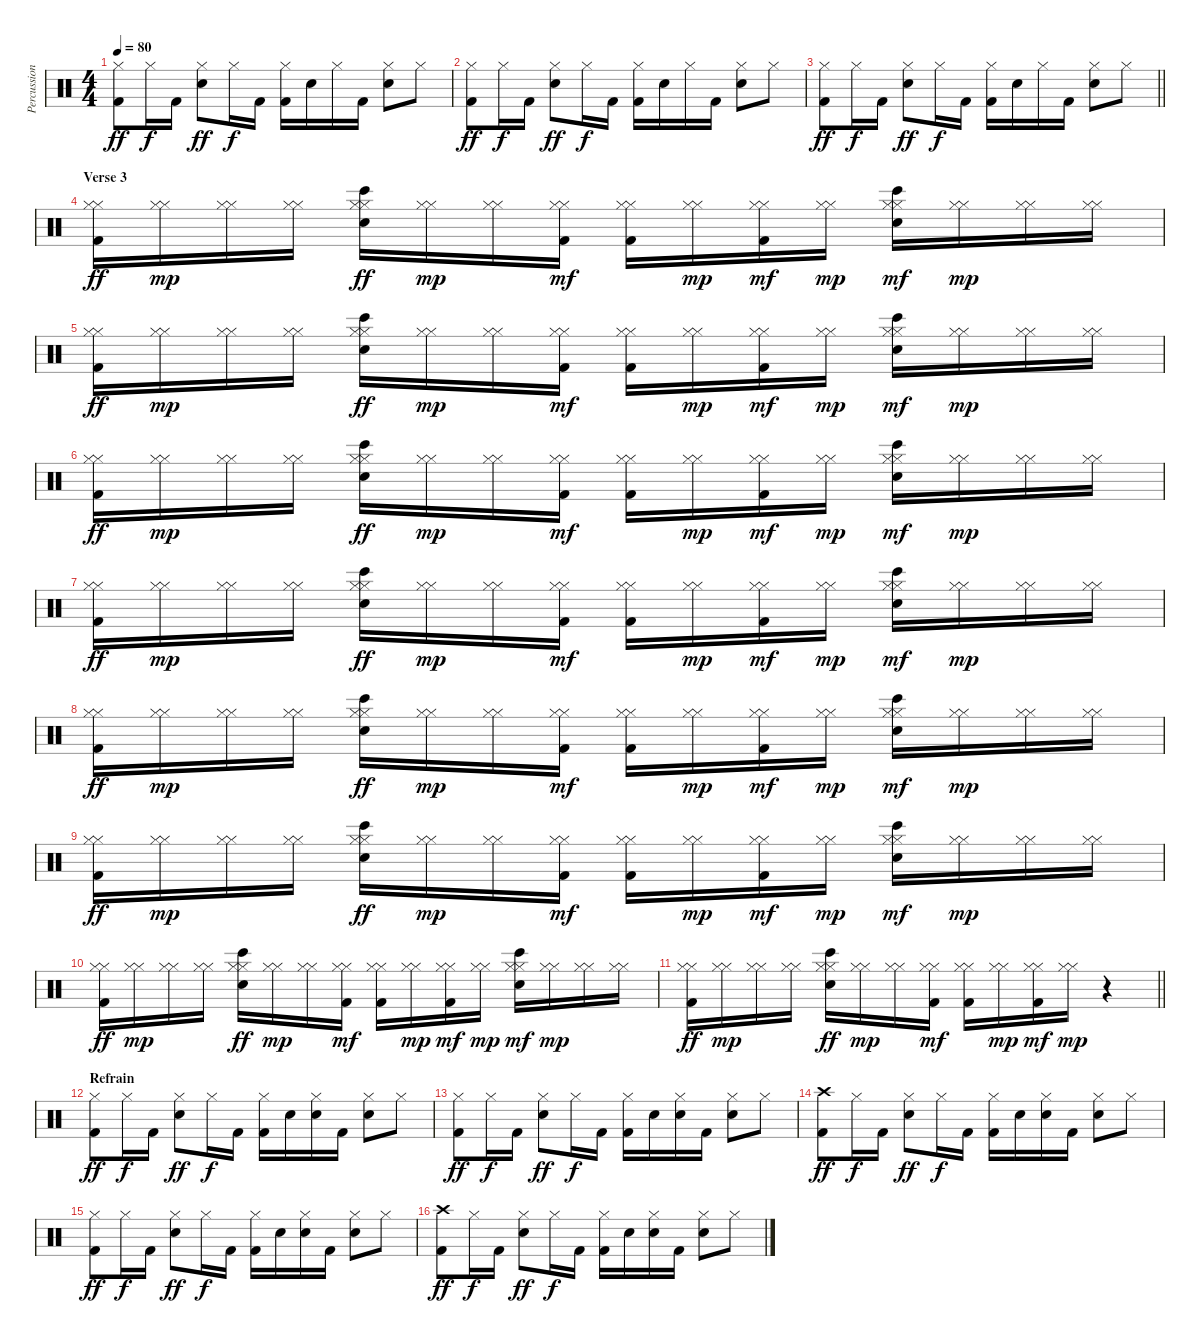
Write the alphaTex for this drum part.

\track ("Percussion (Stieven)" "Percussion") {instrument percussion}
\staff {score}
\articulation defaults
\ts (4 4)
\tempo 80
\clef neutral
\ks c
("Hi-Hat (closed)" "Kick (hit) 2").8{dy ff} "Hi-Hat (closed)".16{dy f} "Kick (hit) 2".16 ("Hi-Hat (closed)" "Snare (hit) 2").8{dy ff} "Hi-Hat (closed)".16{dy f} "Kick (hit) 2".16 ("Hi-Hat (closed)" "Kick (hit) 2").16 "Snare (hit) 2".16 "Hi-Hat (closed)".16 "Kick (hit) 2".16 ("Hi-Hat (closed)" "Snare (hit) 2").8 "Hi-Hat (closed)".8 |
("Hi-Hat (closed)" "Kick (hit) 2").8{dy ff} "Hi-Hat (closed)".16{dy f} "Kick (hit) 2".16 ("Hi-Hat (closed)" "Snare (hit) 2").8{dy ff} "Hi-Hat (closed)".16{dy f} "Kick (hit) 2".16 ("Hi-Hat (closed)" "Kick (hit) 2").16 "Snare (hit) 2".16 "Hi-Hat (closed)".16 "Kick (hit) 2".16 ("Hi-Hat (closed)" "Snare (hit) 2").8 "Hi-Hat (closed)".8 |
\barLineRight lightlight
("Hi-Hat (closed)" "Kick (hit) 2").8{dy ff} "Hi-Hat (closed)".16{dy f} "Kick (hit) 2".16 ("Hi-Hat (closed)" "Snare (hit) 2").8{dy ff} "Hi-Hat (closed)".16{dy f} "Kick (hit) 2".16 ("Hi-Hat (closed)" "Kick (hit) 2").16 "Snare (hit) 2".16 "Hi-Hat (closed)".16 "Kick (hit) 2".16 ("Hi-Hat (closed)" "Snare (hit) 2").8 "Hi-Hat (closed)".8 |
\section ("" "Verse 3")
("Hi-Hat (closed)" "Hi-Hat (closed)" "Kick (hit) 2").16{dy ff} ("Hi-Hat (closed)" "Hi-Hat (closed)").16{dy mp} ("Hi-Hat (closed)" "Hi-Hat (closed)").16 ("Hi-Hat (closed)" "Hi-Hat (closed)").16 ("Hi-Hat (closed)" "Hi-Hat (closed)" "Bongo High (hit)" "Snare (hit) 2").16{dy ff} ("Hi-Hat (closed)" "Hi-Hat (closed)").16{dy mp} ("Hi-Hat (closed)" "Hi-Hat (closed)").16 ("Hi-Hat (closed)" "Hi-Hat (closed)" "Kick (hit) 2").16{dy mf} ("Hi-Hat (closed)" "Hi-Hat (closed)" "Kick (hit) 2").16 ("Hi-Hat (closed)" "Hi-Hat (closed)").16{dy mp} ("Hi-Hat (closed)" "Hi-Hat (closed)" "Kick (hit) 2").16{dy mf} ("Hi-Hat (closed)" "Hi-Hat (closed)").16{dy mp} ("Hi-Hat (closed)" "Hi-Hat (closed)" "Bongo High (hit)" "Snare (hit) 2").16{dy mf} ("Hi-Hat (closed)" "Hi-Hat (closed)").16{dy mp} ("Hi-Hat (closed)" "Hi-Hat (closed)").16 ("Hi-Hat (closed)" "Hi-Hat (closed)").16 |
("Hi-Hat (closed)" "Hi-Hat (closed)" "Kick (hit) 2").16{dy ff} ("Hi-Hat (closed)" "Hi-Hat (closed)").16{dy mp} ("Hi-Hat (closed)" "Hi-Hat (closed)").16 ("Hi-Hat (closed)" "Hi-Hat (closed)").16 ("Hi-Hat (closed)" "Hi-Hat (closed)" "Bongo High (hit)" "Snare (hit) 2").16{dy ff} ("Hi-Hat (closed)" "Hi-Hat (closed)").16{dy mp} ("Hi-Hat (closed)" "Hi-Hat (closed)").16 ("Hi-Hat (closed)" "Hi-Hat (closed)" "Kick (hit) 2").16{dy mf} ("Hi-Hat (closed)" "Hi-Hat (closed)" "Kick (hit) 2").16 ("Hi-Hat (closed)" "Hi-Hat (closed)").16{dy mp} ("Hi-Hat (closed)" "Hi-Hat (closed)" "Kick (hit) 2").16{dy mf} ("Hi-Hat (closed)" "Hi-Hat (closed)").16{dy mp} ("Hi-Hat (closed)" "Hi-Hat (closed)" "Bongo High (hit)" "Snare (hit) 2").16{dy mf} ("Hi-Hat (closed)" "Hi-Hat (closed)").16{dy mp} ("Hi-Hat (closed)" "Hi-Hat (closed)").16 ("Hi-Hat (closed)" "Hi-Hat (closed)").16 |
("Hi-Hat (closed)" "Hi-Hat (closed)" "Kick (hit) 2").16{dy ff} ("Hi-Hat (closed)" "Hi-Hat (closed)").16{dy mp} ("Hi-Hat (closed)" "Hi-Hat (closed)").16 ("Hi-Hat (closed)" "Hi-Hat (closed)").16 ("Hi-Hat (closed)" "Hi-Hat (closed)" "Bongo High (hit)" "Snare (hit) 2").16{dy ff} ("Hi-Hat (closed)" "Hi-Hat (closed)").16{dy mp} ("Hi-Hat (closed)" "Hi-Hat (closed)").16 ("Hi-Hat (closed)" "Hi-Hat (closed)" "Kick (hit) 2").16{dy mf} ("Hi-Hat (closed)" "Hi-Hat (closed)" "Kick (hit) 2").16 ("Hi-Hat (closed)" "Hi-Hat (closed)").16{dy mp} ("Hi-Hat (closed)" "Hi-Hat (closed)" "Kick (hit) 2").16{dy mf} ("Hi-Hat (closed)" "Hi-Hat (closed)").16{dy mp} ("Hi-Hat (closed)" "Hi-Hat (closed)" "Bongo High (hit)" "Snare (hit) 2").16{dy mf} ("Hi-Hat (closed)" "Hi-Hat (closed)").16{dy mp} ("Hi-Hat (closed)" "Hi-Hat (closed)").16 ("Hi-Hat (closed)" "Hi-Hat (closed)").16 |
("Hi-Hat (closed)" "Hi-Hat (closed)" "Kick (hit) 2").16{dy ff} ("Hi-Hat (closed)" "Hi-Hat (closed)").16{dy mp} ("Hi-Hat (closed)" "Hi-Hat (closed)").16 ("Hi-Hat (closed)" "Hi-Hat (closed)").16 ("Hi-Hat (closed)" "Hi-Hat (closed)" "Bongo High (hit)" "Snare (hit) 2").16{dy ff} ("Hi-Hat (closed)" "Hi-Hat (closed)").16{dy mp} ("Hi-Hat (closed)" "Hi-Hat (closed)").16 ("Hi-Hat (closed)" "Hi-Hat (closed)" "Kick (hit) 2").16{dy mf} ("Hi-Hat (closed)" "Hi-Hat (closed)" "Kick (hit) 2").16 ("Hi-Hat (closed)" "Hi-Hat (closed)").16{dy mp} ("Hi-Hat (closed)" "Hi-Hat (closed)" "Kick (hit) 2").16{dy mf} ("Hi-Hat (closed)" "Hi-Hat (closed)").16{dy mp} ("Hi-Hat (closed)" "Hi-Hat (closed)" "Bongo High (hit)" "Snare (hit) 2").16{dy mf} ("Hi-Hat (closed)" "Hi-Hat (closed)").16{dy mp} ("Hi-Hat (closed)" "Hi-Hat (closed)").16 ("Hi-Hat (closed)" "Hi-Hat (closed)").16 |
("Hi-Hat (closed)" "Hi-Hat (closed)" "Kick (hit) 2").16{dy ff} ("Hi-Hat (closed)" "Hi-Hat (closed)").16{dy mp} ("Hi-Hat (closed)" "Hi-Hat (closed)").16 ("Hi-Hat (closed)" "Hi-Hat (closed)").16 ("Hi-Hat (closed)" "Hi-Hat (closed)" "Bongo High (hit)" "Snare (hit) 2").16{dy ff} ("Hi-Hat (closed)" "Hi-Hat (closed)").16{dy mp} ("Hi-Hat (closed)" "Hi-Hat (closed)").16 ("Hi-Hat (closed)" "Hi-Hat (closed)" "Kick (hit) 2").16{dy mf} ("Hi-Hat (closed)" "Hi-Hat (closed)" "Kick (hit) 2").16 ("Hi-Hat (closed)" "Hi-Hat (closed)").16{dy mp} ("Hi-Hat (closed)" "Hi-Hat (closed)" "Kick (hit) 2").16{dy mf} ("Hi-Hat (closed)" "Hi-Hat (closed)").16{dy mp} ("Hi-Hat (closed)" "Hi-Hat (closed)" "Bongo High (hit)" "Snare (hit) 2").16{dy mf} ("Hi-Hat (closed)" "Hi-Hat (closed)").16{dy mp} ("Hi-Hat (closed)" "Hi-Hat (closed)").16 ("Hi-Hat (closed)" "Hi-Hat (closed)").16 |
("Hi-Hat (closed)" "Hi-Hat (closed)" "Kick (hit) 2").16{dy ff} ("Hi-Hat (closed)" "Hi-Hat (closed)").16{dy mp} ("Hi-Hat (closed)" "Hi-Hat (closed)").16 ("Hi-Hat (closed)" "Hi-Hat (closed)").16 ("Hi-Hat (closed)" "Hi-Hat (closed)" "Bongo High (hit)" "Snare (hit) 2").16{dy ff} ("Hi-Hat (closed)" "Hi-Hat (closed)").16{dy mp} ("Hi-Hat (closed)" "Hi-Hat (closed)").16 ("Hi-Hat (closed)" "Hi-Hat (closed)" "Kick (hit) 2").16{dy mf} ("Hi-Hat (closed)" "Hi-Hat (closed)" "Kick (hit) 2").16 ("Hi-Hat (closed)" "Hi-Hat (closed)").16{dy mp} ("Hi-Hat (closed)" "Hi-Hat (closed)" "Kick (hit) 2").16{dy mf} ("Hi-Hat (closed)" "Hi-Hat (closed)").16{dy mp} ("Hi-Hat (closed)" "Hi-Hat (closed)" "Bongo High (hit)" "Snare (hit) 2").16{dy mf} ("Hi-Hat (closed)" "Hi-Hat (closed)").16{dy mp} ("Hi-Hat (closed)" "Hi-Hat (closed)").16 ("Hi-Hat (closed)" "Hi-Hat (closed)").16 |
("Hi-Hat (closed)" "Hi-Hat (closed)" "Kick (hit) 2").16{dy ff} ("Hi-Hat (closed)" "Hi-Hat (closed)").16{dy mp} ("Hi-Hat (closed)" "Hi-Hat (closed)").16 ("Hi-Hat (closed)" "Hi-Hat (closed)").16 ("Hi-Hat (closed)" "Hi-Hat (closed)" "Bongo High (hit)" "Snare (hit) 2").16{dy ff} ("Hi-Hat (closed)" "Hi-Hat (closed)").16{dy mp} ("Hi-Hat (closed)" "Hi-Hat (closed)").16 ("Hi-Hat (closed)" "Hi-Hat (closed)" "Kick (hit) 2").16{dy mf} ("Hi-Hat (closed)" "Hi-Hat (closed)" "Kick (hit) 2").16 ("Hi-Hat (closed)" "Hi-Hat (closed)").16{dy mp} ("Hi-Hat (closed)" "Hi-Hat (closed)" "Kick (hit) 2").16{dy mf} ("Hi-Hat (closed)" "Hi-Hat (closed)").16{dy mp} ("Hi-Hat (closed)" "Hi-Hat (closed)" "Bongo High (hit)" "Snare (hit) 2").16{dy mf} ("Hi-Hat (closed)" "Hi-Hat (closed)").16{dy mp} ("Hi-Hat (closed)" "Hi-Hat (closed)").16 ("Hi-Hat (closed)" "Hi-Hat (closed)").16 |
\barLineRight lightlight
("Hi-Hat (closed)" "Hi-Hat (closed)" "Kick (hit) 2").16{dy ff} ("Hi-Hat (closed)" "Hi-Hat (closed)").16{dy mp} ("Hi-Hat (closed)" "Hi-Hat (closed)").16 ("Hi-Hat (closed)" "Hi-Hat (closed)").16 ("Hi-Hat (closed)" "Hi-Hat (closed)" "Bongo High (hit)" "Snare (hit) 2").16{dy ff} ("Hi-Hat (closed)" "Hi-Hat (closed)").16{dy mp} ("Hi-Hat (closed)" "Hi-Hat (closed)").16 ("Hi-Hat (closed)" "Hi-Hat (closed)" "Kick (hit) 2").16{dy mf} ("Hi-Hat (closed)" "Hi-Hat (closed)" "Kick (hit) 2").16 ("Hi-Hat (closed)" "Hi-Hat (closed)").16{dy mp} ("Hi-Hat (closed)" "Hi-Hat (closed)" "Kick (hit) 2").16{dy mf} ("Hi-Hat (closed)" "Hi-Hat (closed)").16{dy mp} r.4 |
\section ("" "Refrain")
("Hi-Hat (closed)" "Kick (hit) 2").8{dy ff} "Hi-Hat (closed)".16{dy f} "Kick (hit) 2".16 ("Hi-Hat (closed)" "Snare (hit) 2").8{dy ff} "Hi-Hat (closed)".16{dy f} "Kick (hit) 2".16 ("Hi-Hat (closed)" "Kick (hit) 2").16 "Snare (hit) 2".16 ("Hi-Hat (closed)" "Snare (hit) 2").16 "Kick (hit) 2".16 ("Hi-Hat (closed)" "Snare (hit) 2").8 "Hi-Hat (closed)".8 |
("Hi-Hat (closed)" "Kick (hit) 2").8{dy ff} "Hi-Hat (closed)".16{dy f} "Kick (hit) 2".16 ("Hi-Hat (closed)" "Snare (hit) 2").8{dy ff} "Hi-Hat (closed)".16{dy f} "Kick (hit) 2".16 ("Hi-Hat (closed)" "Kick (hit) 2").16 "Snare (hit) 2".16 ("Hi-Hat (closed)" "Snare (hit) 2").16 "Kick (hit) 2".16 ("Hi-Hat (closed)" "Snare (hit) 2").8 "Hi-Hat (closed)".8 |
("Crash high (hit)" "Kick (hit) 2").8{dy ff} "Hi-Hat (closed)".16{dy f} "Kick (hit) 2".16 ("Hi-Hat (closed)" "Snare (hit) 2").8{dy ff} "Hi-Hat (closed)".16{dy f} "Kick (hit) 2".16 ("Hi-Hat (closed)" "Kick (hit) 2").16 "Snare (hit) 2".16 ("Hi-Hat (closed)" "Snare (hit) 2").16 "Kick (hit) 2".16 ("Hi-Hat (closed)" "Snare (hit) 2").8 "Hi-Hat (closed)".8 |
("Hi-Hat (closed)" "Kick (hit) 2").8{dy ff} "Hi-Hat (closed)".16{dy f} "Kick (hit) 2".16 ("Hi-Hat (closed)" "Snare (hit) 2").8{dy ff} "Hi-Hat (closed)".16{dy f} "Kick (hit) 2".16 ("Hi-Hat (closed)" "Kick (hit) 2").16 "Snare (hit) 2".16 ("Hi-Hat (closed)" "Snare (hit) 2").16 "Kick (hit) 2".16 ("Hi-Hat (closed)" "Snare (hit) 2").8 "Hi-Hat (closed)".8 |
("Crash high (hit)" "Kick (hit) 2").8{dy ff} "Hi-Hat (closed)".16{dy f} "Kick (hit) 2".16 ("Hi-Hat (closed)" "Snare (hit) 2").8{dy ff} "Hi-Hat (closed)".16{dy f} "Kick (hit) 2".16 ("Hi-Hat (closed)" "Kick (hit) 2").16 "Snare (hit) 2".16 ("Hi-Hat (closed)" "Snare (hit) 2").16 "Kick (hit) 2".16 ("Hi-Hat (closed)" "Snare (hit) 2").8 "Hi-Hat (closed)".8
